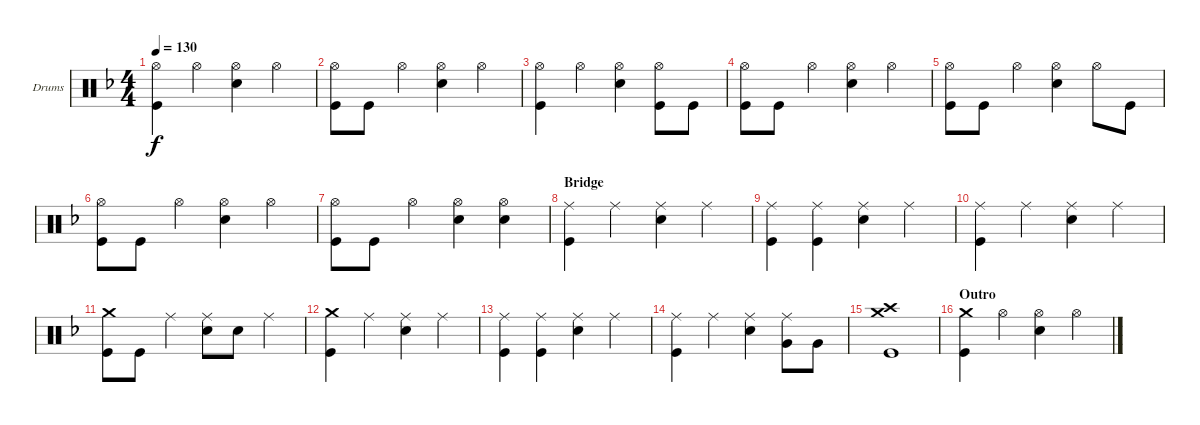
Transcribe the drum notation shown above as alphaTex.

\defaultSystemsLayout 4
\bracketExtendMode groupsimilarinstruments
\firstSystemTrackNameOrientation horizontal
\otherSystemsTrackNameOrientation horizontal
\track ("Drumkit" "Drums") {instrument percussion}
\staff {score}
\articulation defaults
\ts (4 4)
\tempo 130
\clef neutral
\ks dminor
("Kick (hit)" "Hi-Hat (open)").4{dy f} "Hi-Hat (open)".4 ("Snare (hit) 2" "Hi-Hat (open)").4 "Hi-Hat (open)".4 |
("Kick (hit)" "Hi-Hat (open)").8 "Kick (hit)".8 "Hi-Hat (open)".4 ("Snare (hit) 2" "Hi-Hat (open)").4 "Hi-Hat (open)".4 |
("Kick (hit)" "Hi-Hat (open)").4 "Hi-Hat (open)".4 ("Snare (hit) 2" "Hi-Hat (open)").4 ("Hi-Hat (open)" "Kick (hit)").8 "Kick (hit)".8 |
("Kick (hit)" "Hi-Hat (open)").8 "Kick (hit)".8 "Hi-Hat (open)".4 ("Snare (hit) 2" "Hi-Hat (open)").4 "Hi-Hat (open)".4 |
("Kick (hit)" "Hi-Hat (open)").8 "Kick (hit)".8 "Hi-Hat (open)".4 ("Snare (hit) 2" "Hi-Hat (open)").4 "Hi-Hat (open)".8 "Kick (hit)".8 |
("Kick (hit)" "Hi-Hat (open)").8 "Kick (hit)".8 "Hi-Hat (open)".4 ("Snare (hit) 2" "Hi-Hat (open)").4 "Hi-Hat (open)".4 |
("Kick (hit)" "Hi-Hat (open)").8 "Kick (hit)".8 "Hi-Hat (open)".4 ("Snare (hit) 2" "Hi-Hat (open)").4 ("Hi-Hat (open)" "Snare (hit) 2").4 |
\section ("" "Bridge")
("Ride (middle)" "Kick (hit)").4 "Ride (middle)".4 ("Ride (middle)" "Snare (hit) 2").4 "Ride (middle)".4 |
("Ride (middle)" "Kick (hit)").4 ("Ride (middle)" "Kick (hit)").4 ("Ride (middle)" "Snare (hit) 2").4 "Ride (middle)".4 |
("Ride (middle)" "Kick (hit)").4 "Ride (middle)".4 ("Ride (middle)" "Snare (hit) 2").4 "Ride (middle)".4 |
("Kick (hit)" "Crash medium (hit)").8 "Kick (hit)".8 "Ride (middle)".4 ("Ride (middle)" "Snare (hit) 2").8 "Snare (hit) 2".8 "Ride (middle)".4 |
("Kick (hit)" "Crash medium (hit)").4 "Ride (middle)".4 ("Ride (middle)" "Snare (hit) 2").4 "Ride (middle)".4 |
("Ride (middle)" "Kick (hit)").4 ("Ride (middle)" "Kick (hit)").4 ("Ride (middle)" "Snare (hit) 2").4 "Ride (middle)".4 |
("Ride (middle)" "Kick (hit)").4 "Ride (middle)".4 ("Ride (middle)" "Snare (hit) 2").4 ("Ride (middle)" "Very Low Tom (hit)").8 "Very Low Tom (hit)".8 |
("Kick (hit)" "Crash medium (hit)" "Crash high (hit)").1 |
\section ("" "Outro")
("Kick (hit)" "Crash medium (hit)").4 "Hi-Hat (open)".4 ("Hi-Hat (open)" "Snare (hit) 2").4 "Hi-Hat (open)".4
